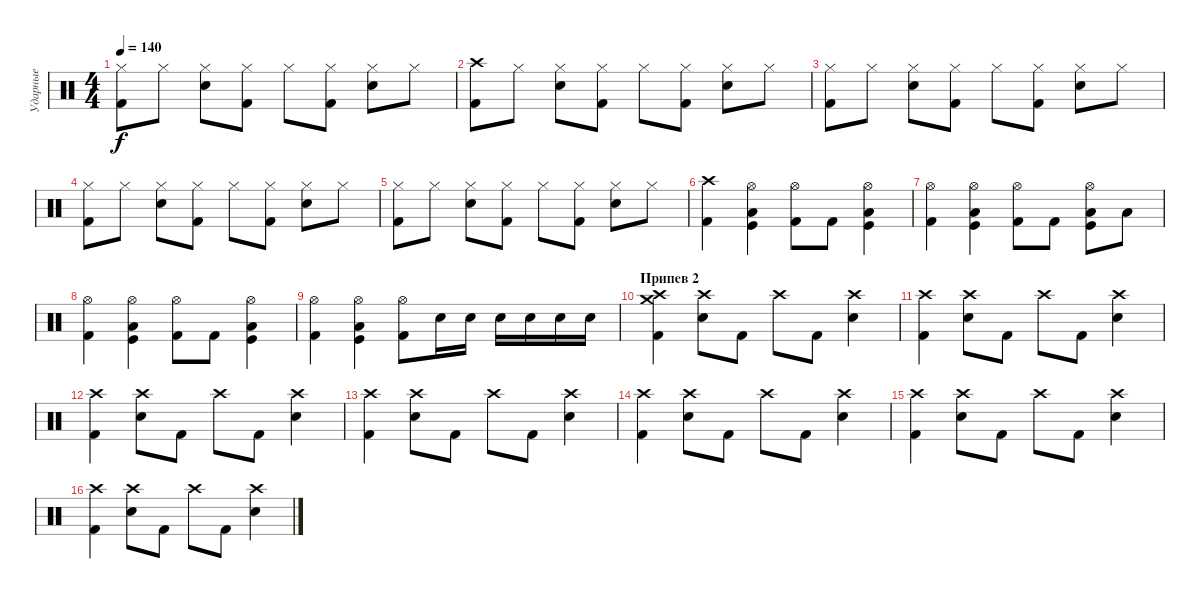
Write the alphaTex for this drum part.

\track ("Ударные" "Ударные") {instrument percussion}
\staff {score}
\articulation defaults
\ts (4 4)
\tempo 140
\clef neutral
\ks c
("Hi-Hat (closed)" "Kick (hit) 2").8{dy f} "Hi-Hat (closed)".8 ("Hi-Hat (closed)" "Electric Snare (hit)").8 ("Hi-Hat (closed)" "Kick (hit) 2").8 "Hi-Hat (closed)".8 ("Hi-Hat (closed)" "Kick (hit) 2").8 ("Hi-Hat (closed)" "Electric Snare (hit)").8 "Hi-Hat (closed)".8 |
("Crash high (hit)" "Kick (hit) 2").8 "Hi-Hat (closed)".8 ("Hi-Hat (closed)" "Electric Snare (hit)").8 ("Hi-Hat (closed)" "Kick (hit) 2").8 "Hi-Hat (closed)".8 ("Hi-Hat (closed)" "Kick (hit) 2").8 ("Hi-Hat (closed)" "Electric Snare (hit)").8 "Hi-Hat (closed)".8 |
("Hi-Hat (closed)" "Kick (hit) 2").8 "Hi-Hat (closed)".8 ("Hi-Hat (closed)" "Electric Snare (hit)").8 ("Hi-Hat (closed)" "Kick (hit) 2").8 "Hi-Hat (closed)".8 ("Hi-Hat (closed)" "Kick (hit) 2").8 ("Hi-Hat (closed)" "Electric Snare (hit)").8 "Hi-Hat (closed)".8 |
("Hi-Hat (closed)" "Kick (hit) 2").8 "Hi-Hat (closed)".8 ("Hi-Hat (closed)" "Electric Snare (hit)").8 ("Hi-Hat (closed)" "Kick (hit) 2").8 "Hi-Hat (closed)".8 ("Hi-Hat (closed)" "Kick (hit) 2").8 ("Hi-Hat (closed)" "Electric Snare (hit)").8 "Hi-Hat (closed)".8 |
("Hi-Hat (closed)" "Kick (hit) 2").8 "Hi-Hat (closed)".8 ("Hi-Hat (closed)" "Electric Snare (hit)").8 ("Hi-Hat (closed)" "Kick (hit) 2").8 "Hi-Hat (closed)".8 ("Hi-Hat (closed)" "Kick (hit) 2").8 ("Hi-Hat (closed)" "Electric Snare (hit)").8 "Hi-Hat (closed)".8 |
("Crash high (hit)" "Kick (hit) 2").4 ("Hi-Hat (open)" "Kick (hit)" "Low Tom (hit)").4 ("Hi-Hat (open)" "Kick (hit) 2").8 "Kick (hit) 2".8 ("Hi-Hat (open)" "Kick (hit)" "Low Tom (hit)").4 |
("Hi-Hat (open)" "Kick (hit) 2").4 ("Hi-Hat (open)" "Low Tom (hit)" "Kick (hit)").4 ("Hi-Hat (open)" "Kick (hit) 2").8 "Kick (hit) 2".8 ("Hi-Hat (open)" "Low Tom (hit)" "Kick (hit)").8 "Low Tom (hit)".8 |
("Hi-Hat (open)" "Kick (hit) 2").4 ("Hi-Hat (open)" "Low Tom (hit)" "Kick (hit)").4 ("Hi-Hat (open)" "Kick (hit) 2").8 "Kick (hit) 2".8 ("Hi-Hat (open)" "Low Tom (hit)" "Kick (hit)").4 |
("Hi-Hat (open)" "Kick (hit) 2").4 ("Hi-Hat (open)" "Low Tom (hit)" "Kick (hit)").4 ("Hi-Hat (open)" "Kick (hit) 2").8 "Electric Snare (hit)".16 "Electric Snare (hit)".16 "Electric Snare (hit)".16 "Electric Snare (hit)".16 "Electric Snare (hit)".16 "Electric Snare (hit)".16 |
\section ("" "Припев 2")
("Crash high (hit)" "Crash medium (hit)" "Kick (hit) 2").4 ("Crash high (hit)" "Electric Snare (hit)").8 "Kick (hit) 2".8 "Crash high (hit)".8 "Kick (hit) 2".8 ("Crash high (hit)" "Electric Snare (hit)").4 |
("Crash high (hit)" "Kick (hit) 2").4 ("Crash high (hit)" "Electric Snare (hit)").8 "Kick (hit) 2".8 "Crash high (hit)".8 "Kick (hit) 2".8 ("Crash high (hit)" "Electric Snare (hit)").4 |
("Crash high (hit)" "Kick (hit) 2").4 ("Crash high (hit)" "Electric Snare (hit)").8 "Kick (hit) 2".8 "Crash high (hit)".8 "Kick (hit) 2".8 ("Crash high (hit)" "Electric Snare (hit)").4 |
("Crash high (hit)" "Kick (hit) 2").4 ("Crash high (hit)" "Electric Snare (hit)").8 "Kick (hit) 2".8 "Crash high (hit)".8 "Kick (hit) 2".8 ("Crash high (hit)" "Electric Snare (hit)").4 |
("Crash high (hit)" "Kick (hit) 2").4 ("Crash high (hit)" "Electric Snare (hit)").8 "Kick (hit) 2".8 "Crash high (hit)".8 "Kick (hit) 2".8 ("Crash high (hit)" "Electric Snare (hit)").4 |
("Crash high (hit)" "Kick (hit) 2").4 ("Crash high (hit)" "Electric Snare (hit)").8 "Kick (hit) 2".8 "Crash high (hit)".8 "Kick (hit) 2".8 ("Crash high (hit)" "Electric Snare (hit)").4 |
("Crash high (hit)" "Kick (hit) 2").4 ("Crash high (hit)" "Electric Snare (hit)").8 "Kick (hit) 2".8 "Crash high (hit)".8 "Kick (hit) 2".8 ("Crash high (hit)" "Electric Snare (hit)").4
